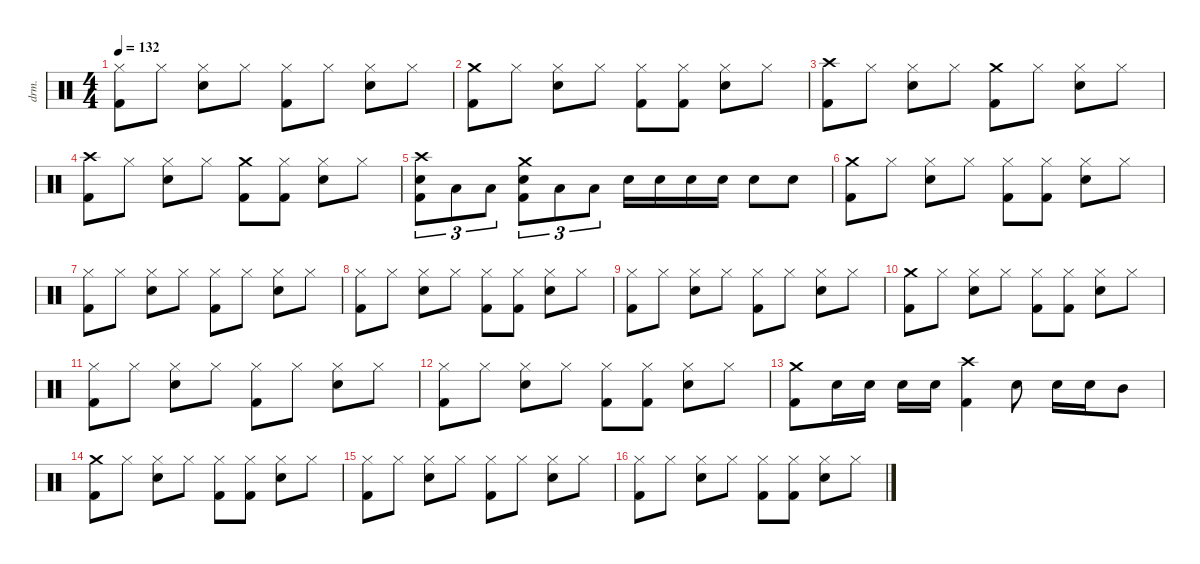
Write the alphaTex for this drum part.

\defaultSystemsLayout 4
\hideDynamics
\bracketExtendMode nobrackets
\track ("敲击乐器" "drm.") {instrument percussion}
\staff {score}
\articulation defaults
\ts (4 4)
\tempo 132
\clef neutral
\ks c
("Hi-Hat (closed)" "Kick (hit) 2").8{dy f} "Hi-Hat (closed)".8 ("Hi-Hat (closed)" "Snare (hit) 2").8 "Hi-Hat (closed)".8 ("Hi-Hat (closed)" "Kick (hit) 2").8 "Hi-Hat (closed)".8 ("Hi-Hat (closed)" "Snare (hit) 2").8 "Hi-Hat (closed)".8 |
("Crash medium (hit)" "Kick (hit) 2").8 "Hi-Hat (closed)".8 ("Hi-Hat (closed)" "Snare (hit) 2").8 "Hi-Hat (closed)".8 ("Hi-Hat (closed)" "Kick (hit) 2").8 ("Hi-Hat (closed)" "Kick (hit) 2").8 ("Hi-Hat (closed)" "Snare (hit) 2").8 "Hi-Hat (closed)".8 |
("Crash high (hit)" "Kick (hit) 2").8 "Hi-Hat (closed)".8 ("Hi-Hat (closed)" "Snare (hit) 2").8 "Hi-Hat (closed)".8 ("Crash medium (hit)" "Kick (hit) 2").8 "Hi-Hat (closed)".8 ("Hi-Hat (closed)" "Snare (hit) 2").8 "Hi-Hat (closed)".8 |
("Crash high (hit)" "Kick (hit) 2").8 "Hi-Hat (closed)".8 ("Hi-Hat (closed)" "Snare (hit) 2").8 "Hi-Hat (closed)".8 ("Crash medium (hit)" "Kick (hit) 2").8 ("Hi-Hat (closed)" "Kick (hit) 2").8 ("Hi-Hat (closed)" "Snare (hit) 2").8 "Hi-Hat (closed)".8 |
("Crash high (hit)" "Snare (hit) 2" "Kick (hit) 2").8{tu (3 2)} "Low Tom (hit)".8{tu (3 2)} "Low Tom (hit)".8{tu (3 2)} ("Crash medium (hit)" "Snare (hit) 2" "Kick (hit) 2").8{tu (3 2)} "Low Floor Tom (hit)".8{tu (3 2)} "Low Floor Tom (hit)".8{tu (3 2)} "Snare (hit) 2".16 "Snare (hit) 2".16 "Snare (hit) 2".16 "Snare (hit) 2".16 "Snare (hit) 2".8 "Snare (hit) 2".8 |
("Crash medium (hit)" "Kick (hit) 2").8 "Hi-Hat (closed)".8 ("Hi-Hat (closed)" "Snare (hit) 2").8 "Hi-Hat (closed)".8 ("Hi-Hat (closed)" "Kick (hit) 2").8 ("Hi-Hat (closed)" "Kick (hit) 2").8 ("Hi-Hat (closed)" "Snare (hit) 2").8 "Hi-Hat (closed)".8 |
("Hi-Hat (closed)" "Kick (hit) 2").8 "Hi-Hat (closed)".8 ("Hi-Hat (closed)" "Snare (hit) 2").8 "Hi-Hat (closed)".8 ("Hi-Hat (closed)" "Kick (hit) 2").8 "Hi-Hat (closed)".8 ("Hi-Hat (closed)" "Snare (hit) 2").8 "Hi-Hat (closed)".8 |
("Hi-Hat (closed)" "Kick (hit) 2").8 "Hi-Hat (closed)".8 ("Hi-Hat (closed)" "Snare (hit) 2").8 "Hi-Hat (closed)".8 ("Hi-Hat (closed)" "Kick (hit) 2").8 ("Hi-Hat (closed)" "Kick (hit) 2").8 ("Hi-Hat (closed)" "Snare (hit) 2").8 "Hi-Hat (closed)".8 |
("Hi-Hat (closed)" "Kick (hit) 2").8 "Hi-Hat (closed)".8 ("Hi-Hat (closed)" "Snare (hit) 2").8 "Hi-Hat (closed)".8 ("Hi-Hat (closed)" "Kick (hit) 2").8 "Hi-Hat (closed)".8 ("Hi-Hat (closed)" "Snare (hit) 2").8 "Hi-Hat (closed)".8 |
("Crash medium (hit)" "Kick (hit) 2").8 "Hi-Hat (closed)".8 ("Hi-Hat (closed)" "Snare (hit) 2").8 "Hi-Hat (closed)".8 ("Hi-Hat (closed)" "Kick (hit) 2").8 ("Hi-Hat (closed)" "Kick (hit) 2").8 ("Hi-Hat (closed)" "Snare (hit) 2").8 "Hi-Hat (closed)".8 |
("Hi-Hat (closed)" "Kick (hit) 2").8 "Hi-Hat (closed)".8 ("Hi-Hat (closed)" "Snare (hit) 2").8 "Hi-Hat (closed)".8 ("Hi-Hat (closed)" "Kick (hit) 2").8 "Hi-Hat (closed)".8 ("Hi-Hat (closed)" "Snare (hit) 2").8 "Hi-Hat (closed)".8 |
("Hi-Hat (closed)" "Kick (hit) 2").8 "Hi-Hat (closed)".8 ("Hi-Hat (closed)" "Snare (hit) 2").8 "Hi-Hat (closed)".8 ("Hi-Hat (closed)" "Kick (hit) 2").8 ("Hi-Hat (closed)" "Kick (hit) 2").8 ("Hi-Hat (closed)" "Snare (hit) 2").8 "Hi-Hat (closed)".8 |
("Crash medium (hit)" "Kick (hit) 2").8 "Snare (hit) 2".16 "Snare (hit) 2".16 "Snare (hit) 2".16 "Snare (hit) 2".16 ("Crash high (hit)" "Kick (hit) 2").4 "Snare (hit) 2".8 "Snare (hit) 2".16 "Snare (hit) 2".16 "Mid Tom (hit)".8 |
("Crash medium (hit)" "Kick (hit) 2").8 "Hi-Hat (closed)".8 ("Hi-Hat (closed)" "Snare (hit) 2").8 "Hi-Hat (closed)".8 ("Hi-Hat (closed)" "Kick (hit) 2").8 ("Hi-Hat (closed)" "Kick (hit) 2").8 ("Hi-Hat (closed)" "Snare (hit) 2").8 "Hi-Hat (closed)".8 |
("Hi-Hat (closed)" "Kick (hit) 2").8 "Hi-Hat (closed)".8 ("Hi-Hat (closed)" "Snare (hit) 2").8 "Hi-Hat (closed)".8 ("Hi-Hat (closed)" "Kick (hit) 2").8 "Hi-Hat (closed)".8 ("Hi-Hat (closed)" "Snare (hit) 2").8 "Hi-Hat (closed)".8 |
("Hi-Hat (closed)" "Kick (hit) 2").8 "Hi-Hat (closed)".8 ("Hi-Hat (closed)" "Snare (hit) 2").8 "Hi-Hat (closed)".8 ("Hi-Hat (closed)" "Kick (hit) 2").8 ("Hi-Hat (closed)" "Kick (hit) 2").8 ("Hi-Hat (closed)" "Snare (hit) 2").8 "Hi-Hat (closed)".8
